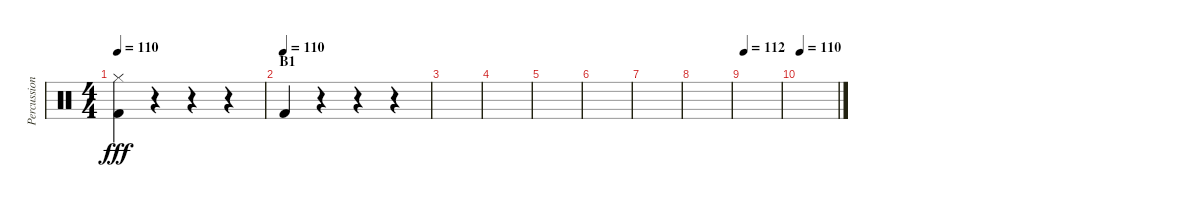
\track ("Percussion" "Percussion") {instrument percussion}
\staff {score}
\articulation defaults
\ts (4 4)
\tempo 110
\clef neutral
\ks c
("Kick (hit) 2" "Hi-Hat (closed)").4{dy fff} r.4 r.4 r.4 |
\section ("" "B1")
\tempo (110)
"Kick (hit) 2".4 r.4 r.4 r.4 |
|
|
|
|
|
|
\tempo 112
|
\tempo 110
